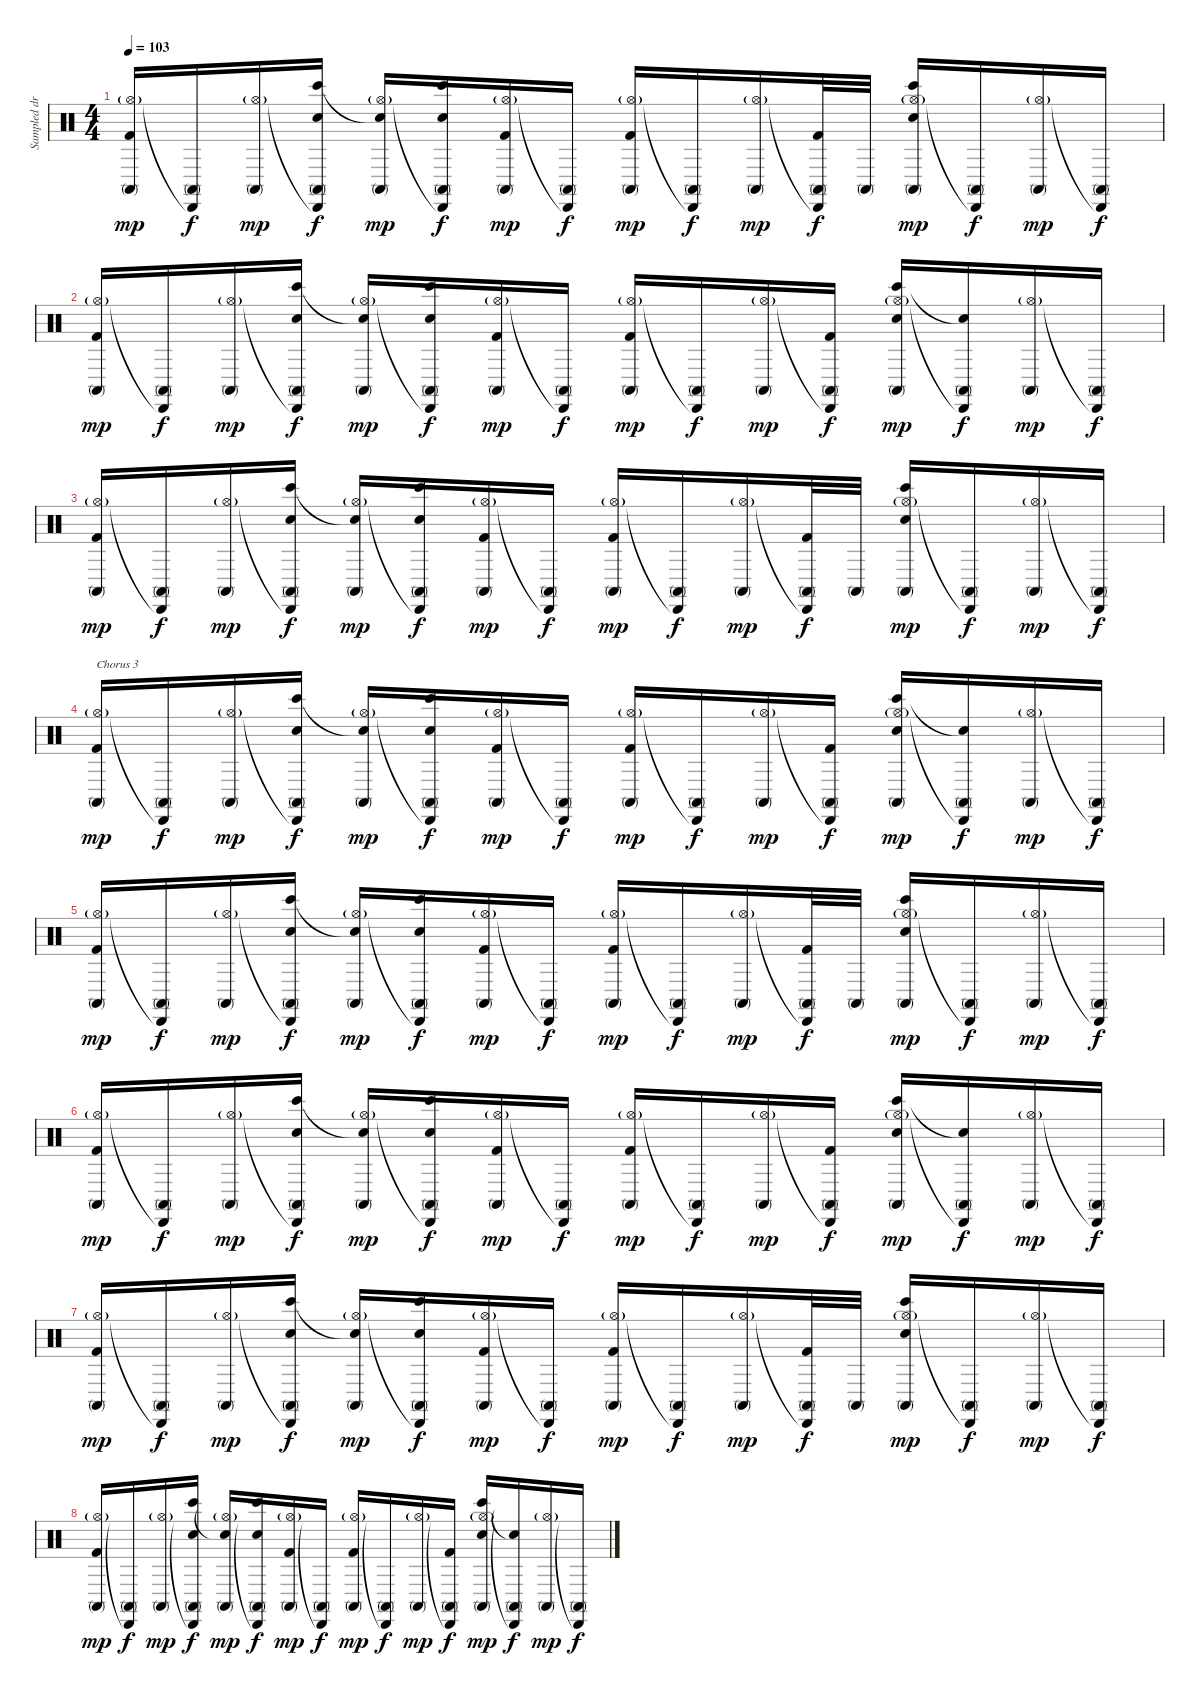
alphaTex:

\track ("Sampled drums (Rob with Joe)" "Sampled dr") {instrument percussion}
\staff {score}
\articulation defaults
\ts (4 4)
\tempo 103
\clef neutral
\ks c
("Hi-Hat (open)"{g} "Conga high (mute)" "Kick (hit) 2").16{dy mp} ("Cabasa (hit)"{t} "Conga high (mute)").16{dy f} ("Hi-Hat (open)"{g} "Conga high (mute)").16{dy mp} ("Cabasa (hit)"{t} "Conga high (mute)" "Bongo High (hit)" "Snare (hit) 2").16{dy f} ("Hi-Hat (open)"{g} "Conga high (mute)" "Snare (hit)"{t}).16{dy mp} ("Cabasa (hit)"{t} "Conga high (mute)" "Bongo High (hit)" "Snare (hit) 2").16{dy f} ("Hi-Hat (open)"{g} "Conga high (mute)" "Kick (hit) 2").16{dy mp} ("Cabasa (hit)"{t} "Conga high (mute)").16{dy f} ("Hi-Hat (open)"{g} "Conga high (mute)" "Kick (hit) 2").16{dy mp} ("Cabasa (hit)"{t} "Conga high (mute)").16{dy f} ("Hi-Hat (open)"{g} "Conga high (mute)").16{dy mp} ("Cabasa (hit)"{t} "Conga high (mute)" "Kick (hit) 2").32{dy f} "Conga high (mute)".32 ("Hi-Hat (open)"{g} "Conga high (mute)" "Bongo High (hit)" "Snare (hit) 2").16{dy mp} ("Cabasa (hit)"{t} "Conga high (mute)").16{dy f} ("Hi-Hat (open)"{g} "Conga high (mute)").16{dy mp} ("Cabasa (hit)"{t} "Conga high (mute)").16{dy f} |
("Hi-Hat (open)"{g} "Conga high (mute)" "Kick (hit) 2").16{dy mp} ("Cabasa (hit)"{t} "Conga high (mute)").16{dy f} ("Hi-Hat (open)"{g} "Conga high (mute)").16{dy mp} ("Cabasa (hit)"{t} "Conga high (mute)" "Bongo High (hit)" "Snare (hit) 2").16{dy f} ("Hi-Hat (open)"{g} "Conga high (mute)" "Snare (hit)"{t}).16{dy mp} ("Cabasa (hit)"{t} "Conga high (mute)" "Bongo High (hit)" "Snare (hit) 2").16{dy f} ("Hi-Hat (open)"{g} "Conga high (mute)" "Kick (hit) 2").16{dy mp} ("Cabasa (hit)"{t} "Conga high (mute)").16{dy f} ("Hi-Hat (open)"{g} "Conga high (mute)" "Kick (hit) 2").16{dy mp} ("Cabasa (hit)"{t} "Conga high (mute)").16{dy f} ("Hi-Hat (open)"{g} "Conga high (mute)").16{dy mp} ("Cabasa (hit)"{t} "Conga high (mute)" "Kick (hit) 2").16{dy f} ("Hi-Hat (open)"{g} "Conga high (mute)" "Bongo High (hit)" "Snare (hit) 2").16{dy mp} ("Cabasa (hit)"{t} "Conga high (mute)" "Snare (hit)"{t}).16{dy f} ("Hi-Hat (open)"{g} "Conga high (mute)").16{dy mp} ("Cabasa (hit)"{t} "Conga high (mute)").16{dy f} |
("Hi-Hat (open)"{g} "Conga high (mute)" "Kick (hit) 2").16{dy mp} ("Cabasa (hit)"{t} "Conga high (mute)").16{dy f} ("Hi-Hat (open)"{g} "Conga high (mute)").16{dy mp} ("Cabasa (hit)"{t} "Conga high (mute)" "Bongo High (hit)" "Snare (hit) 2").16{dy f} ("Hi-Hat (open)"{g} "Conga high (mute)" "Snare (hit)"{t}).16{dy mp} ("Cabasa (hit)"{t} "Conga high (mute)" "Bongo High (hit)" "Snare (hit) 2").16{dy f} ("Hi-Hat (open)"{g} "Conga high (mute)" "Kick (hit) 2").16{dy mp} ("Cabasa (hit)"{t} "Conga high (mute)").16{dy f} ("Hi-Hat (open)"{g} "Conga high (mute)" "Kick (hit) 2").16{dy mp} ("Cabasa (hit)"{t} "Conga high (mute)").16{dy f} ("Hi-Hat (open)"{g} "Conga high (mute)").16{dy mp} ("Cabasa (hit)"{t} "Conga high (mute)" "Kick (hit) 2").32{dy f} "Conga high (mute)".32 ("Hi-Hat (open)"{g} "Conga high (mute)" "Bongo High (hit)" "Snare (hit) 2").16{dy mp} ("Cabasa (hit)"{t} "Conga high (mute)").16{dy f} ("Hi-Hat (open)"{g} "Conga high (mute)").16{dy mp} ("Cabasa (hit)"{t} "Conga high (mute)").16{dy f} |
("Hi-Hat (open)"{g} "Conga high (mute)" "Kick (hit) 2").16{txt "Chorus 3" dy mp} ("Cabasa (hit)"{t} "Conga high (mute)").16{dy f} ("Hi-Hat (open)"{g} "Conga high (mute)").16{dy mp} ("Cabasa (hit)"{t} "Conga high (mute)" "Bongo High (hit)" "Snare (hit) 2").16{dy f} ("Hi-Hat (open)"{g} "Conga high (mute)" "Snare (hit)"{t}).16{dy mp} ("Cabasa (hit)"{t} "Conga high (mute)" "Bongo High (hit)" "Snare (hit) 2").16{dy f} ("Hi-Hat (open)"{g} "Conga high (mute)" "Kick (hit) 2").16{dy mp} ("Cabasa (hit)"{t} "Conga high (mute)").16{dy f} ("Hi-Hat (open)"{g} "Conga high (mute)" "Kick (hit) 2").16{dy mp} ("Cabasa (hit)"{t} "Conga high (mute)").16{dy f} ("Hi-Hat (open)"{g} "Conga high (mute)").16{dy mp} ("Cabasa (hit)"{t} "Conga high (mute)" "Kick (hit) 2").16{dy f} ("Hi-Hat (open)"{g} "Conga high (mute)" "Bongo High (hit)" "Snare (hit) 2").16{dy mp} ("Cabasa (hit)"{t} "Conga high (mute)" "Snare (hit)"{t}).16{dy f} ("Hi-Hat (open)"{g} "Conga high (mute)").16{dy mp} ("Cabasa (hit)"{t} "Conga high (mute)").16{dy f} |
("Hi-Hat (open)"{g} "Conga high (mute)" "Kick (hit) 2").16{dy mp} ("Cabasa (hit)"{t} "Conga high (mute)").16{dy f} ("Hi-Hat (open)"{g} "Conga high (mute)").16{dy mp} ("Cabasa (hit)"{t} "Conga high (mute)" "Bongo High (hit)" "Snare (hit) 2").16{dy f} ("Hi-Hat (open)"{g} "Conga high (mute)" "Snare (hit)"{t}).16{dy mp} ("Cabasa (hit)"{t} "Conga high (mute)" "Bongo High (hit)" "Snare (hit) 2").16{dy f} ("Hi-Hat (open)"{g} "Conga high (mute)" "Kick (hit) 2").16{dy mp} ("Cabasa (hit)"{t} "Conga high (mute)").16{dy f} ("Hi-Hat (open)"{g} "Conga high (mute)" "Kick (hit) 2").16{dy mp} ("Cabasa (hit)"{t} "Conga high (mute)").16{dy f} ("Hi-Hat (open)"{g} "Conga high (mute)").16{dy mp} ("Cabasa (hit)"{t} "Conga high (mute)" "Kick (hit) 2").32{dy f} "Conga high (mute)".32 ("Hi-Hat (open)"{g} "Conga high (mute)" "Bongo High (hit)" "Snare (hit) 2").16{dy mp} ("Cabasa (hit)"{t} "Conga high (mute)").16{dy f} ("Hi-Hat (open)"{g} "Conga high (mute)").16{dy mp} ("Cabasa (hit)"{t} "Conga high (mute)").16{dy f} |
("Hi-Hat (open)"{g} "Conga high (mute)" "Kick (hit) 2").16{dy mp} ("Cabasa (hit)"{t} "Conga high (mute)").16{dy f} ("Hi-Hat (open)"{g} "Conga high (mute)").16{dy mp} ("Cabasa (hit)"{t} "Conga high (mute)" "Bongo High (hit)" "Snare (hit) 2").16{dy f} ("Hi-Hat (open)"{g} "Conga high (mute)" "Snare (hit)"{t}).16{dy mp} ("Cabasa (hit)"{t} "Conga high (mute)" "Bongo High (hit)" "Snare (hit) 2").16{dy f} ("Hi-Hat (open)"{g} "Conga high (mute)" "Kick (hit) 2").16{dy mp} ("Cabasa (hit)"{t} "Conga high (mute)").16{dy f} ("Hi-Hat (open)"{g} "Conga high (mute)" "Kick (hit) 2").16{dy mp} ("Cabasa (hit)"{t} "Conga high (mute)").16{dy f} ("Hi-Hat (open)"{g} "Conga high (mute)").16{dy mp} ("Cabasa (hit)"{t} "Conga high (mute)" "Kick (hit) 2").16{dy f} ("Hi-Hat (open)"{g} "Conga high (mute)" "Bongo High (hit)" "Snare (hit) 2").16{dy mp} ("Cabasa (hit)"{t} "Conga high (mute)" "Snare (hit)"{t}).16{dy f} ("Hi-Hat (open)"{g} "Conga high (mute)").16{dy mp} ("Cabasa (hit)"{t} "Conga high (mute)").16{dy f} |
("Hi-Hat (open)"{g} "Conga high (mute)" "Kick (hit) 2").16{dy mp} ("Cabasa (hit)"{t} "Conga high (mute)").16{dy f} ("Hi-Hat (open)"{g} "Conga high (mute)").16{dy mp} ("Cabasa (hit)"{t} "Conga high (mute)" "Bongo High (hit)" "Snare (hit) 2").16{dy f} ("Hi-Hat (open)"{g} "Conga high (mute)" "Snare (hit)"{t}).16{dy mp} ("Cabasa (hit)"{t} "Conga high (mute)" "Bongo High (hit)" "Snare (hit) 2").16{dy f} ("Hi-Hat (open)"{g} "Conga high (mute)" "Kick (hit) 2").16{dy mp} ("Cabasa (hit)"{t} "Conga high (mute)").16{dy f} ("Hi-Hat (open)"{g} "Conga high (mute)" "Kick (hit) 2").16{dy mp} ("Cabasa (hit)"{t} "Conga high (mute)").16{dy f} ("Hi-Hat (open)"{g} "Conga high (mute)").16{dy mp} ("Cabasa (hit)"{t} "Conga high (mute)" "Kick (hit) 2").32{dy f} "Conga high (mute)".32 ("Hi-Hat (open)"{g} "Conga high (mute)" "Bongo High (hit)" "Snare (hit) 2").16{dy mp} ("Cabasa (hit)"{t} "Conga high (mute)").16{dy f} ("Hi-Hat (open)"{g} "Conga high (mute)").16{dy mp} ("Cabasa (hit)"{t} "Conga high (mute)").16{dy f} |
("Hi-Hat (open)"{g} "Conga high (mute)" "Kick (hit) 2").16{dy mp} ("Cabasa (hit)"{t} "Conga high (mute)").16{dy f} ("Hi-Hat (open)"{g} "Conga high (mute)").16{dy mp} ("Cabasa (hit)"{t} "Conga high (mute)" "Bongo High (hit)" "Snare (hit) 2").16{dy f} ("Hi-Hat (open)"{g} "Conga high (mute)" "Snare (hit)"{t}).16{dy mp} ("Cabasa (hit)"{t} "Conga high (mute)" "Bongo High (hit)" "Snare (hit) 2").16{dy f} ("Hi-Hat (open)"{g} "Conga high (mute)" "Kick (hit) 2").16{dy mp} ("Cabasa (hit)"{t} "Conga high (mute)").16{dy f} ("Hi-Hat (open)"{g} "Conga high (mute)" "Kick (hit) 2").16{dy mp} ("Cabasa (hit)"{t} "Conga high (mute)").16{dy f} ("Hi-Hat (open)"{g} "Conga high (mute)").16{dy mp} ("Cabasa (hit)"{t} "Conga high (mute)" "Kick (hit) 2").16{dy f} ("Hi-Hat (open)"{g} "Conga high (mute)" "Bongo High (hit)" "Snare (hit) 2").16{dy mp} ("Cabasa (hit)"{t} "Conga high (mute)" "Snare (hit)"{t}).16{dy f} ("Hi-Hat (open)"{g} "Conga high (mute)").16{dy mp} ("Cabasa (hit)"{t} "Conga high (mute)").16{dy f}
